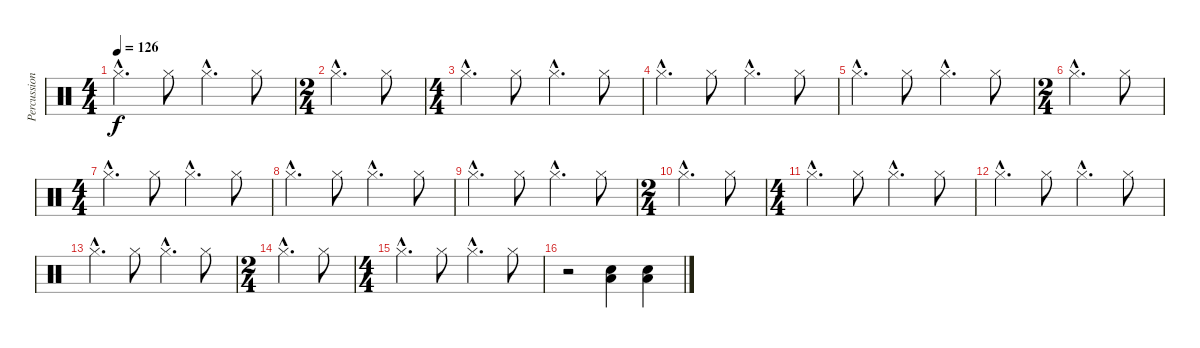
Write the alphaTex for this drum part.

\track ("Percussion" "Percussion") {instrument percussion}
\staff {score}
\articulation defaults
\ts (4 4)
\tempo 126
\clef neutral
\ks c "Hi-Hat (closed)"{hac}.4{d dy f} "Hi-Hat (closed)".8 "Hi-Hat (closed)"{hac}.4{d} "Hi-Hat (closed)".8
|
\ts (2 4)
"Hi-Hat (closed)"{hac}.4{d} "Hi-Hat (closed)".8 |
\ts (4 4)
"Hi-Hat (closed)"{hac}.4{d} "Hi-Hat (closed)".8 "Hi-Hat (closed)"{hac}.4{d} "Hi-Hat (closed)".8 |
"Hi-Hat (closed)"{hac}.4{d} "Hi-Hat (closed)".8 "Hi-Hat (closed)"{hac}.4{d} "Hi-Hat (closed)".8 |
"Hi-Hat (closed)"{hac}.4{d} "Hi-Hat (closed)".8 "Hi-Hat (closed)"{hac}.4{d} "Hi-Hat (closed)".8 |
\ts (2 4)
"Hi-Hat (closed)"{hac}.4{d} "Hi-Hat (closed)".8 |
\ts (4 4)
"Hi-Hat (closed)"{hac}.4{d} "Hi-Hat (closed)".8 "Hi-Hat (closed)"{hac}.4{d} "Hi-Hat (closed)".8 |
"Hi-Hat (closed)"{hac}.4{d} "Hi-Hat (closed)".8 "Hi-Hat (closed)"{hac}.4{d} "Hi-Hat (closed)".8 |
"Hi-Hat (closed)"{hac}.4{d} "Hi-Hat (closed)".8 "Hi-Hat (closed)"{hac}.4{d} "Hi-Hat (closed)".8 |
\ts (2 4)
"Hi-Hat (closed)"{hac}.4{d} "Hi-Hat (closed)".8 |
\ts (4 4)
"Hi-Hat (closed)"{hac}.4{d} "Hi-Hat (closed)".8 "Hi-Hat (closed)"{hac}.4{d} "Hi-Hat (closed)".8 |
"Hi-Hat (closed)"{hac}.4{d} "Hi-Hat (closed)".8 "Hi-Hat (closed)"{hac}.4{d} "Hi-Hat (closed)".8 |
"Hi-Hat (closed)"{hac}.4{d} "Hi-Hat (closed)".8 "Hi-Hat (closed)"{hac}.4{d} "Hi-Hat (closed)".8 |
\ts (2 4)
"Hi-Hat (closed)"{hac}.4{d} "Hi-Hat (closed)".8 |
\ts (4 4)
"Hi-Hat (closed)"{hac}.4{d} "Hi-Hat (closed)".8 "Hi-Hat (closed)"{hac}.4{d} "Hi-Hat (closed)".8 |
r.2 ("Low Tom (hit)" "Snare (hit) 2").4 ("Low Tom (hit)" "Snare (hit) 2").4
